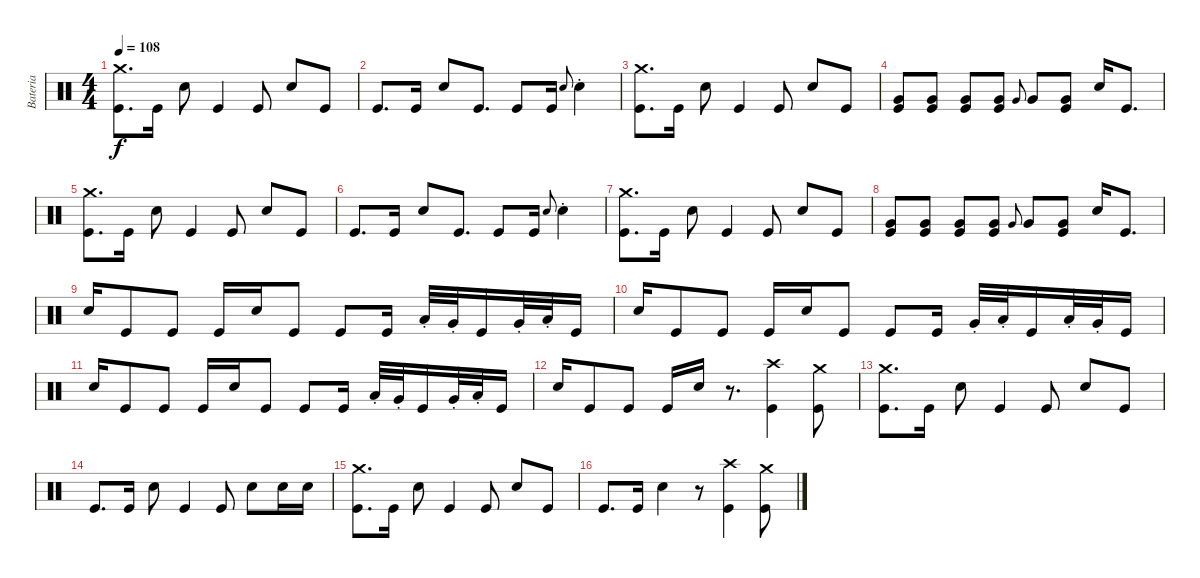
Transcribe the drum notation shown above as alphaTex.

\track ("Bateria" "Bateria") {instrument percussion}
\staff {score}
\articulation defaults
\ts (4 4)
\tempo 108
\clef neutral
\ks c
("Crash medium (hit)" "Kick (hit)").8{d dy f} "Kick (hit)".16 "Snare (hit) 2".8 "Kick (hit)".4 "Kick (hit)".8 "Snare (hit) 2".8 "Kick (hit)".8 |
"Kick (hit)".8{d} "Kick (hit)".16 "Snare (hit) 2".8 "Kick (hit)".8{d} "Kick (hit)".8 "Kick (hit)".16 "Snare (hit) 2".8{gr onbeat} "Snare (hit) 2"{st}.4 |
("Crash medium (hit)" "Kick (hit)").8{d} "Kick (hit)".16 "Snare (hit) 2".8 "Kick (hit)".4 "Kick (hit)".8 "Snare (hit) 2".8 "Kick (hit)".8 |
("Very Low Tom (hit)" "Kick (hit)").8 ("Very Low Tom (hit)" "Kick (hit)").8 ("Very Low Tom (hit)" "Kick (hit)").8 ("Very Low Tom (hit)" "Kick (hit)").8 "Very Low Tom (hit)".8{gr onbeat} "Very Low Tom (hit)".8 ("Very Low Tom (hit)" "Kick (hit)").8 "Snare (hit) 2".16 "Kick (hit)".8{d} |
("Crash medium (hit)" "Kick (hit)").8{d} "Kick (hit)".16 "Snare (hit) 2".8 "Kick (hit)".4 "Kick (hit)".8 "Snare (hit) 2".8 "Kick (hit)".8 |
"Kick (hit)".8{d} "Kick (hit)".16 "Snare (hit) 2".8 "Kick (hit)".8{d} "Kick (hit)".8 "Kick (hit)".16 "Snare (hit) 2".8{gr onbeat} "Snare (hit) 2"{st}.4 |
("Crash medium (hit)" "Kick (hit)").8{d} "Kick (hit)".16 "Snare (hit) 2".8 "Kick (hit)".4 "Kick (hit)".8 "Snare (hit) 2".8 "Kick (hit)".8 |
("Very Low Tom (hit)" "Kick (hit)").8 ("Very Low Tom (hit)" "Kick (hit)").8 ("Very Low Tom (hit)" "Kick (hit)").8 ("Very Low Tom (hit)" "Kick (hit)").8 "Very Low Tom (hit)".8{gr onbeat} "Very Low Tom (hit)".8 ("Very Low Tom (hit)" "Kick (hit)").8 "Snare (hit) 2".16 "Kick (hit)".8{d} |
"Snare (hit) 2".16 "Kick (hit)".8 "Kick (hit)".8 "Kick (hit)".16 "Snare (hit) 2".16 "Kick (hit)".8 "Kick (hit)".8 "Kick (hit)".16 "Low Tom (hit)"{st}.32 "Very Low Tom (hit)"{st}.32 "Kick (hit)".16 "Very Low Tom (hit)"{st}.32 "Low Floor Tom (hit)"{st}.32 "Kick (hit)".16 |
"Snare (hit) 2".16 "Kick (hit)".8 "Kick (hit)".8 "Kick (hit)".16 "Snare (hit) 2".16 "Kick (hit)".8 "Kick (hit)".8 "Kick (hit)".16 "Very Low Tom (hit)"{st}.32 "Low Floor Tom (hit)"{st}.32 "Kick (hit)".16 "Low Tom (hit)"{st}.32 "Very Low Tom (hit)"{st}.32 "Kick (hit)".16 |
"Snare (hit) 2".16 "Kick (hit)".8 "Kick (hit)".8 "Kick (hit)".16 "Snare (hit) 2".16 "Kick (hit)".8 "Kick (hit)".8 "Kick (hit)".16 "Low Tom (hit)"{st}.32 "Very Low Tom (hit)"{st}.32 "Kick (hit)".16 "Very Low Tom (hit)"{st}.32 "Low Floor Tom (hit)"{st}.32 "Kick (hit)".16 |
"Snare (hit) 2".16 "Kick (hit)".8 "Kick (hit)".8 "Kick (hit)".16 "Snare (hit) 2".16 r.8{d} ("Crash high (hit)" "Kick (hit)").4 ("Crash medium (hit)" "Kick (hit)").8 |
("Crash medium (hit)" "Kick (hit)").8{d} "Kick (hit)".16 "Snare (hit) 2".8 "Kick (hit)".4 "Kick (hit)".8 "Snare (hit) 2".8 "Kick (hit)".8 |
"Kick (hit)".8{d} "Kick (hit)".16 "Snare (hit) 2".8 "Kick (hit)".4 "Kick (hit)".8 "Snare (hit) 2".8 "Snare (hit) 2".16 "Snare (hit) 2".16 |
("Crash medium (hit)" "Kick (hit)").8{d} "Kick (hit)".16 "Snare (hit) 2".8 "Kick (hit)".4 "Kick (hit)".8 "Snare (hit) 2".8 "Kick (hit)".8 |
"Kick (hit)".8{d} "Kick (hit)".16 "Snare (hit) 2".4 r.8 ("Crash high (hit)" "Kick (hit)").4 ("Crash medium (hit)" "Kick (hit)").8
